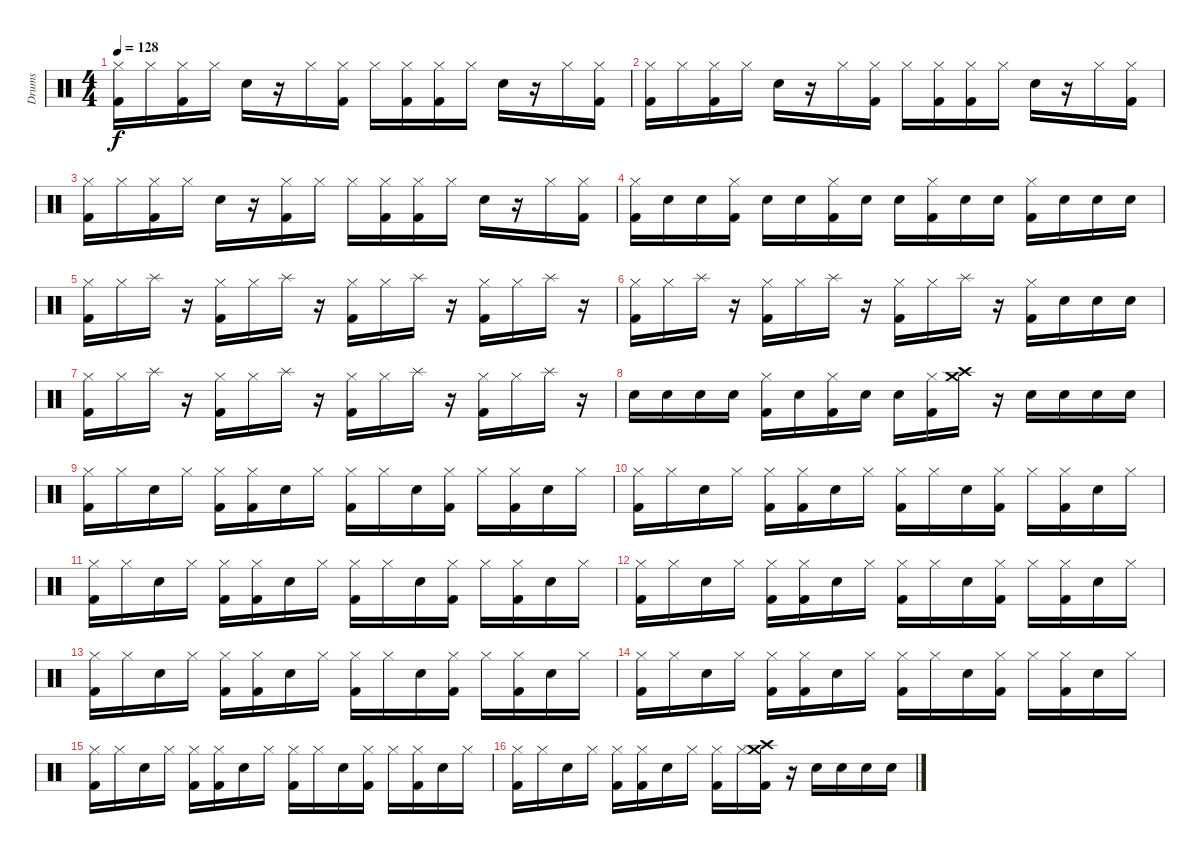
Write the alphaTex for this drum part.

\track ("Drums" "Drums") {instrument percussion}
\staff {score}
\articulation defaults
\ts (4 4)
\tempo 128
\clef neutral
\ks c
("Hi-Hat (closed)" "Kick (hit) 2").16{dy f} "Hi-Hat (closed)".16 ("Hi-Hat (closed)" "Kick (hit) 2").16 "Hi-Hat (closed)".16 "Snare (hit) 2".16 r.16 "Hi-Hat (closed)".16 ("Hi-Hat (closed)" "Kick (hit) 2").16 "Hi-Hat (closed)".16 ("Hi-Hat (closed)" "Kick (hit) 2").16 ("Hi-Hat (closed)" "Kick (hit) 2").16 "Hi-Hat (closed)".16 "Snare (hit) 2".16 r.16 "Hi-Hat (closed)".16 ("Hi-Hat (closed)" "Kick (hit) 2").16 |
("Hi-Hat (closed)" "Kick (hit) 2").16 "Hi-Hat (closed)".16 ("Hi-Hat (closed)" "Kick (hit) 2").16 "Hi-Hat (closed)".16 "Snare (hit) 2".16 r.16 "Hi-Hat (closed)".16 ("Hi-Hat (closed)" "Kick (hit) 2").16 "Hi-Hat (closed)".16 ("Hi-Hat (closed)" "Kick (hit) 2").16 ("Hi-Hat (closed)" "Kick (hit) 2").16 "Hi-Hat (closed)".16 "Snare (hit) 2".16 r.16 "Hi-Hat (closed)".16 ("Hi-Hat (closed)" "Kick (hit) 2").16 |
("Hi-Hat (closed)" "Kick (hit) 2").16 "Hi-Hat (closed)".16 ("Hi-Hat (closed)" "Kick (hit) 2").16 "Hi-Hat (closed)".16 "Snare (hit) 2".16 r.16 ("Hi-Hat (closed)" "Kick (hit) 2").16 "Hi-Hat (closed)".16 "Hi-Hat (closed)".16 ("Hi-Hat (closed)" "Kick (hit) 2").16 ("Hi-Hat (closed)" "Kick (hit) 2").16 "Hi-Hat (closed)".16 "Snare (hit) 2".16 r.16 "Hi-Hat (closed)".16 ("Hi-Hat (closed)" "Kick (hit) 2").16 |
("Hi-Hat (closed)" "Kick (hit) 2").16 "Snare (hit) 2".16 "Snare (hit) 2".16 ("Hi-Hat (closed)" "Kick (hit) 2").16 "Snare (hit) 2".16 "Snare (hit) 2".16 ("Hi-Hat (closed)" "Kick (hit) 2").16 "Snare (hit) 2".16 "Snare (hit) 2".16 ("Hi-Hat (closed)" "Kick (hit) 2").16 "Snare (hit) 2".16 "Snare (hit) 2".16 ("Hi-Hat (closed)" "Kick (hit) 2").16 "Snare (hit) 2".16 "Snare (hit) 2".16 "Snare (hit) 2".16 |
("Hi-Hat (closed)" "Kick (hit) 2").16 "Hi-Hat (closed)".16 "Splash (hit)".16 r.16 ("Hi-Hat (closed)" "Kick (hit) 2").16 "Hi-Hat (closed)".16 "Splash (hit)".16 r.16 ("Hi-Hat (closed)" "Kick (hit) 2").16 "Hi-Hat (closed)".16 "Splash (hit)".16 r.16 ("Hi-Hat (closed)" "Kick (hit) 2").16 "Hi-Hat (closed)".16 "Splash (hit)".16 r.16 |
("Hi-Hat (closed)" "Kick (hit) 2").16 "Hi-Hat (closed)".16 "Splash (hit)".16 r.16 ("Hi-Hat (closed)" "Kick (hit) 2").16 "Hi-Hat (closed)".16 "Splash (hit)".16 r.16 ("Hi-Hat (closed)" "Kick (hit) 2").16 "Hi-Hat (closed)".16 "Splash (hit)".16 r.16 ("Hi-Hat (closed)" "Kick (hit) 2").16 "Snare (hit) 2".16 "Snare (hit) 2".16 "Snare (hit) 2".16 |
("Hi-Hat (closed)" "Kick (hit) 2").16 "Hi-Hat (closed)".16 "Splash (hit)".16 r.16 ("Hi-Hat (closed)" "Kick (hit) 2").16 "Hi-Hat (closed)".16 "Splash (hit)".16 r.16 ("Hi-Hat (closed)" "Kick (hit) 2").16 "Hi-Hat (closed)".16 "Splash (hit)".16 r.16 ("Hi-Hat (closed)" "Kick (hit) 2").16 "Hi-Hat (closed)".16 "Splash (hit)".16 r.16 |
"Snare (hit) 2".16 "Snare (hit) 2".16 "Snare (hit) 2".16 "Snare (hit) 2".16 ("Hi-Hat (closed)" "Kick (hit) 2").16 "Snare (hit) 2".16 ("Hi-Hat (closed)" "Kick (hit) 2").16 "Snare (hit) 2".16 "Snare (hit) 2".16 ("Hi-Hat (closed)" "Kick (hit) 2").16 ("Crash medium (hit)" "Crash high (hit)").16 r.16 "Snare (hit) 2".16 "Snare (hit) 2".16 "Snare (hit) 2".16 "Snare (hit) 2".16 |
("Hi-Hat (closed)" "Kick (hit) 2").16 "Hi-Hat (closed)".16 "Snare (hit) 2".16 "Hi-Hat (closed)".16 ("Hi-Hat (closed)" "Kick (hit) 2").16 ("Hi-Hat (closed)" "Kick (hit) 2").16 "Snare (hit) 2".16 "Hi-Hat (closed)".16 ("Hi-Hat (closed)" "Kick (hit) 2").16 "Hi-Hat (closed)".16 "Snare (hit) 2".16 ("Hi-Hat (closed)" "Kick (hit) 2").16 "Hi-Hat (closed)".16 ("Hi-Hat (closed)" "Kick (hit) 2").16 "Snare (hit) 2".16 "Hi-Hat (closed)".16 |
("Hi-Hat (closed)" "Kick (hit) 2").16 "Hi-Hat (closed)".16 "Snare (hit) 2".16 "Hi-Hat (closed)".16 ("Hi-Hat (closed)" "Kick (hit) 2").16 ("Hi-Hat (closed)" "Kick (hit) 2").16 "Snare (hit) 2".16 "Hi-Hat (closed)".16 ("Hi-Hat (closed)" "Kick (hit) 2").16 "Hi-Hat (closed)".16 "Snare (hit) 2".16 ("Hi-Hat (closed)" "Kick (hit) 2").16 "Hi-Hat (closed)".16 ("Hi-Hat (closed)" "Kick (hit) 2").16 "Snare (hit) 2".16 "Hi-Hat (closed)".16 |
("Hi-Hat (closed)" "Kick (hit) 2").16 "Hi-Hat (closed)".16 "Snare (hit) 2".16 "Hi-Hat (closed)".16 ("Hi-Hat (closed)" "Kick (hit) 2").16 ("Hi-Hat (closed)" "Kick (hit) 2").16 "Snare (hit) 2".16 "Hi-Hat (closed)".16 ("Hi-Hat (closed)" "Kick (hit) 2").16 "Hi-Hat (closed)".16 "Snare (hit) 2".16 ("Hi-Hat (closed)" "Kick (hit) 2").16 "Hi-Hat (closed)".16 ("Hi-Hat (closed)" "Kick (hit) 2").16 "Snare (hit) 2".16 "Hi-Hat (closed)".16 |
("Hi-Hat (closed)" "Kick (hit) 2").16 "Hi-Hat (closed)".16 "Snare (hit) 2".16 "Hi-Hat (closed)".16 ("Hi-Hat (closed)" "Kick (hit) 2").16 ("Hi-Hat (closed)" "Kick (hit) 2").16 "Snare (hit) 2".16 "Hi-Hat (closed)".16 ("Hi-Hat (closed)" "Kick (hit) 2").16 "Hi-Hat (closed)".16 "Snare (hit) 2".16 ("Hi-Hat (closed)" "Kick (hit) 2").16 "Hi-Hat (closed)".16 ("Hi-Hat (closed)" "Kick (hit) 2").16 "Snare (hit) 2".16 "Hi-Hat (closed)".16 |
("Hi-Hat (closed)" "Kick (hit) 2").16 "Hi-Hat (closed)".16 "Snare (hit) 2".16 "Hi-Hat (closed)".16 ("Hi-Hat (closed)" "Kick (hit) 2").16 ("Hi-Hat (closed)" "Kick (hit) 2").16 "Snare (hit) 2".16 "Hi-Hat (closed)".16 ("Hi-Hat (closed)" "Kick (hit) 2").16 "Hi-Hat (closed)".16 "Snare (hit) 2".16 ("Hi-Hat (closed)" "Kick (hit) 2").16 "Hi-Hat (closed)".16 ("Hi-Hat (closed)" "Kick (hit) 2").16 "Snare (hit) 2".16 "Hi-Hat (closed)".16 |
("Hi-Hat (closed)" "Kick (hit) 2").16 "Hi-Hat (closed)".16 "Snare (hit) 2".16 "Hi-Hat (closed)".16 ("Hi-Hat (closed)" "Kick (hit) 2").16 ("Hi-Hat (closed)" "Kick (hit) 2").16 "Snare (hit) 2".16 "Hi-Hat (closed)".16 ("Hi-Hat (closed)" "Kick (hit) 2").16 "Hi-Hat (closed)".16 "Snare (hit) 2".16 ("Hi-Hat (closed)" "Kick (hit) 2").16 "Hi-Hat (closed)".16 ("Hi-Hat (closed)" "Kick (hit) 2").16 "Snare (hit) 2".16 "Hi-Hat (closed)".16 |
("Hi-Hat (closed)" "Kick (hit) 2").16 "Hi-Hat (closed)".16 "Snare (hit) 2".16 "Hi-Hat (closed)".16 ("Hi-Hat (closed)" "Kick (hit) 2").16 ("Hi-Hat (closed)" "Kick (hit) 2").16 "Snare (hit) 2".16 "Hi-Hat (closed)".16 ("Hi-Hat (closed)" "Kick (hit) 2").16 "Hi-Hat (closed)".16 "Snare (hit) 2".16 ("Hi-Hat (closed)" "Kick (hit) 2").16 "Hi-Hat (closed)".16 ("Hi-Hat (closed)" "Kick (hit) 2").16 "Snare (hit) 2".16 "Hi-Hat (closed)".16 |
("Hi-Hat (closed)" "Kick (hit) 2").16 "Hi-Hat (closed)".16 "Snare (hit) 2".16 "Hi-Hat (closed)".16 ("Hi-Hat (closed)" "Kick (hit) 2").16 ("Hi-Hat (closed)" "Kick (hit) 2").16 "Snare (hit) 2".16 "Hi-Hat (closed)".16 ("Hi-Hat (closed)" "Kick (hit) 2").16 "Hi-Hat (closed)".16 ("Crash medium (hit)" "Crash high (hit)" "Kick (hit) 2").16 r.16 "Snare (hit) 2".16 "Snare (hit) 2".16 "Snare (hit) 2".16 "Snare (hit) 2".16
